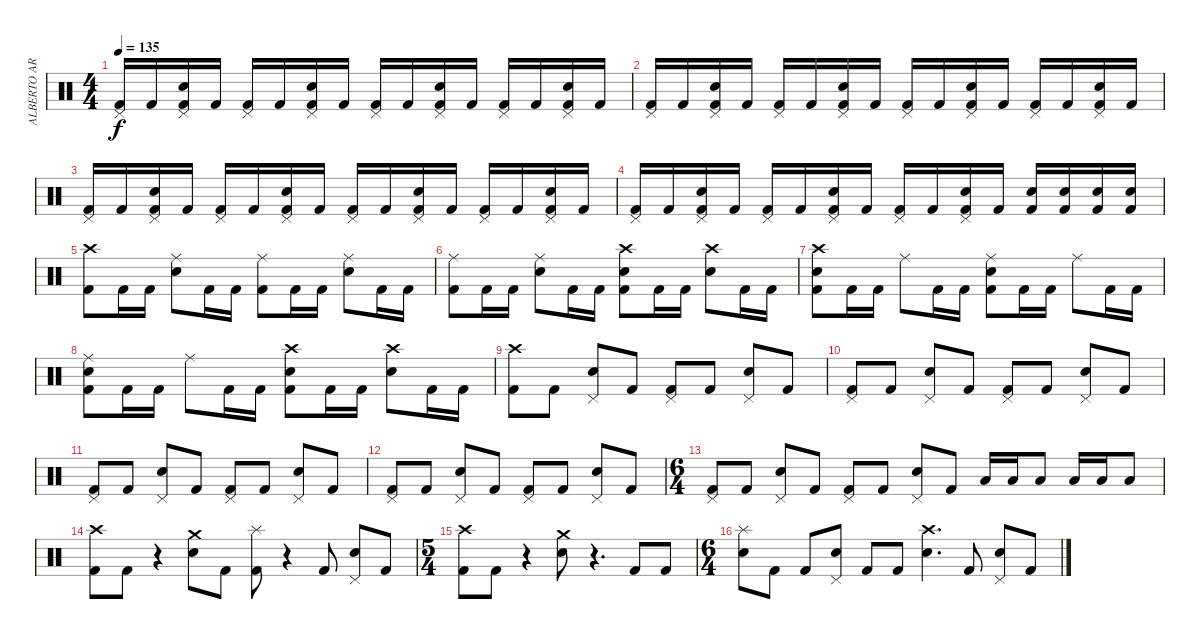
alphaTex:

\track ("ALBERTO ARDINES" "ALBERTO AR") {instrument percussion}
\staff {score}
\articulation defaults
\ts (4 4)
\tempo 135
\clef neutral
\ks c
("Pedal Hi-Hat (hit)" "Kick (hit) 2").16{dy f} "Kick (hit) 2".16 ("Pedal Hi-Hat (hit)" "Electric Snare (hit)" "Kick (hit) 2").16 "Kick (hit) 2".16 ("Pedal Hi-Hat (hit)" "Kick (hit) 2").16 "Kick (hit) 2".16 ("Pedal Hi-Hat (hit)" "Electric Snare (hit)" "Kick (hit) 2").16 "Kick (hit) 2".16 ("Pedal Hi-Hat (hit)" "Kick (hit) 2").16 "Kick (hit) 2".16 ("Pedal Hi-Hat (hit)" "Electric Snare (hit)" "Kick (hit) 2").16 "Kick (hit) 2".16 ("Pedal Hi-Hat (hit)" "Kick (hit) 2").16 "Kick (hit) 2".16 ("Pedal Hi-Hat (hit)" "Electric Snare (hit)" "Kick (hit) 2").16 "Kick (hit) 2".16 |
("Pedal Hi-Hat (hit)" "Kick (hit) 2").16 "Kick (hit) 2".16 ("Pedal Hi-Hat (hit)" "Electric Snare (hit)" "Kick (hit) 2").16 "Kick (hit) 2".16 ("Pedal Hi-Hat (hit)" "Kick (hit) 2").16 "Kick (hit) 2".16 ("Pedal Hi-Hat (hit)" "Electric Snare (hit)" "Kick (hit) 2").16 "Kick (hit) 2".16 ("Pedal Hi-Hat (hit)" "Kick (hit) 2").16 "Kick (hit) 2".16 ("Pedal Hi-Hat (hit)" "Electric Snare (hit)" "Kick (hit) 2").16 "Kick (hit) 2".16 ("Pedal Hi-Hat (hit)" "Kick (hit) 2").16 "Kick (hit) 2".16 ("Pedal Hi-Hat (hit)" "Electric Snare (hit)" "Kick (hit) 2").16 "Kick (hit) 2".16 |
("Pedal Hi-Hat (hit)" "Kick (hit) 2").16 "Kick (hit) 2".16 ("Pedal Hi-Hat (hit)" "Electric Snare (hit)" "Kick (hit) 2").16 "Kick (hit) 2".16 ("Pedal Hi-Hat (hit)" "Kick (hit) 2").16 "Kick (hit) 2".16 ("Pedal Hi-Hat (hit)" "Electric Snare (hit)" "Kick (hit) 2").16 "Kick (hit) 2".16 ("Pedal Hi-Hat (hit)" "Kick (hit) 2").16 "Kick (hit) 2".16 ("Pedal Hi-Hat (hit)" "Electric Snare (hit)" "Kick (hit) 2").16 "Kick (hit) 2".16 ("Pedal Hi-Hat (hit)" "Kick (hit) 2").16 "Kick (hit) 2".16 ("Pedal Hi-Hat (hit)" "Electric Snare (hit)" "Kick (hit) 2").16 "Kick (hit) 2".16 |
("Pedal Hi-Hat (hit)" "Kick (hit) 2").16 "Kick (hit) 2".16 ("Pedal Hi-Hat (hit)" "Electric Snare (hit)" "Kick (hit) 2").16 "Kick (hit) 2".16 ("Pedal Hi-Hat (hit)" "Kick (hit) 2").16 "Kick (hit) 2".16 ("Pedal Hi-Hat (hit)" "Electric Snare (hit)" "Kick (hit) 2").16 "Kick (hit) 2".16 ("Pedal Hi-Hat (hit)" "Kick (hit) 2").16 "Kick (hit) 2".16 ("Pedal Hi-Hat (hit)" "Electric Snare (hit)" "Kick (hit) 2").16 "Kick (hit) 2".16 ("Electric Snare (hit)" "Kick (hit) 2").16 ("Electric Snare (hit)" "Kick (hit) 2").16 ("Electric Snare (hit)" "Kick (hit) 2").16 ("Electric Snare (hit)" "Kick (hit) 2").16 |
("Crash high (hit)" "Kick (hit) 2").8 "Kick (hit) 2".16 "Kick (hit) 2".16 ("Ride (middle)" "Electric Snare (hit)").8 "Kick (hit) 2".16 "Kick (hit) 2".16 ("Ride (middle)" "Kick (hit) 2").8 "Kick (hit) 2".16 "Kick (hit) 2".16 ("Ride (middle)" "Electric Snare (hit)").8 "Kick (hit) 2".16 "Kick (hit) 2".16 |
("Ride (middle)" "Kick (hit) 2").8 "Kick (hit) 2".16 "Kick (hit) 2".16 ("Ride (middle)" "Electric Snare (hit)").8 "Kick (hit) 2".16 "Kick (hit) 2".16 ("Crash high (hit)" "Electric Snare (hit)" "Kick (hit) 2").8 "Kick (hit) 2".16 "Kick (hit) 2".16 ("Crash high (hit)" "Electric Snare (hit)").8 "Kick (hit) 2".16 "Kick (hit) 2".16 |
("Crash high (hit)" "Electric Snare (hit)" "Kick (hit) 2").8 "Kick (hit) 2".16 "Kick (hit) 2".16 "Ride (middle)".8 "Kick (hit) 2".16 "Kick (hit) 2".16 ("Ride (middle)" "Electric Snare (hit)" "Kick (hit) 2").8 "Kick (hit) 2".16 "Kick (hit) 2".16 "Ride (middle)".8 "Kick (hit) 2".16 "Kick (hit) 2".16 |
("Ride (middle)" "Electric Snare (hit)" "Kick (hit) 2").8 "Kick (hit) 2".16 "Kick (hit) 2".16 "Ride (middle)".8 "Kick (hit) 2".16 "Kick (hit) 2".16 ("Crash high (hit)" "Electric Snare (hit)" "Kick (hit) 2").8 "Kick (hit) 2".16 "Kick (hit) 2".16 ("Crash high (hit)" "Electric Snare (hit)").8 "Kick (hit) 2".16 "Kick (hit) 2".16 |
("Crash high (hit)" "Kick (hit) 2").8 "Kick (hit) 2".8 ("Pedal Hi-Hat (hit)" "Electric Snare (hit)").8 "Kick (hit) 2".8 ("Pedal Hi-Hat (hit)" "Kick (hit) 2").8 "Kick (hit) 2".8 ("Pedal Hi-Hat (hit)" "Electric Snare (hit)").8 "Kick (hit) 2".8 |
("Pedal Hi-Hat (hit)" "Kick (hit) 2").8 "Kick (hit) 2".8 ("Pedal Hi-Hat (hit)" "Electric Snare (hit)").8 "Kick (hit) 2".8 ("Pedal Hi-Hat (hit)" "Kick (hit) 2").8 "Kick (hit) 2".8 ("Pedal Hi-Hat (hit)" "Electric Snare (hit)").8 "Kick (hit) 2".8 |
("Pedal Hi-Hat (hit)" "Kick (hit) 2").8 "Kick (hit) 2".8 ("Pedal Hi-Hat (hit)" "Electric Snare (hit)").8 "Kick (hit) 2".8 ("Pedal Hi-Hat (hit)" "Kick (hit) 2").8 "Kick (hit) 2".8 ("Pedal Hi-Hat (hit)" "Electric Snare (hit)").8 "Kick (hit) 2".8 |
("Pedal Hi-Hat (hit)" "Kick (hit) 2").8 "Kick (hit) 2".8 ("Pedal Hi-Hat (hit)" "Electric Snare (hit)").8 "Kick (hit) 2".8 ("Pedal Hi-Hat (hit)" "Kick (hit) 2").8 "Kick (hit) 2".8 ("Pedal Hi-Hat (hit)" "Electric Snare (hit)").8 "Kick (hit) 2".8 |
\ts (6 4)
("Pedal Hi-Hat (hit)" "Kick (hit) 2").8 "Kick (hit) 2".8 ("Pedal Hi-Hat (hit)" "Electric Snare (hit)").8 "Kick (hit) 2".8 ("Pedal Hi-Hat (hit)" "Kick (hit) 2").8 "Kick (hit) 2".8 ("Pedal Hi-Hat (hit)" "Electric Snare (hit)").8 "Kick (hit) 2".8 "Low Tom (hit)".16 "Low Tom (hit)".16 "Low Tom (hit)".8 "Low Tom (hit)".16 "Low Tom (hit)".16 "Low Tom (hit)".8 |
("Crash high (hit)" "Kick (hit) 2").8 "Kick (hit) 2".8 r.4 ("Crash medium (hit)" "Electric Snare (hit)").8 "Kick (hit) 2".8 ("Splash (hit)" "Kick (hit) 2").8 r.4 "Kick (hit) 2".8 ("Pedal Hi-Hat (hit)" "Electric Snare (hit)").8 "Kick (hit) 2".8 |
\ts (5 4)
("Crash high (hit)" "Kick (hit) 2").8 "Kick (hit) 2".8 r.4 ("Crash medium (hit)" "Electric Snare (hit)").8 r.4{d} "Kick (hit) 2".8 "Kick (hit) 2".8 |
\ts (6 4)
("Splash (hit)" "Electric Snare (hit)").8 "Kick (hit) 2".8 "Kick (hit) 2".8 ("Pedal Hi-Hat (hit)" "Electric Snare (hit)").8 "Kick (hit) 2".8 "Kick (hit) 2".8 ("Crash high (hit)" "Electric Snare (hit)").4{d} "Kick (hit) 2".8 ("Pedal Hi-Hat (hit)" "Electric Snare (hit)").8 "Kick (hit) 2".8
